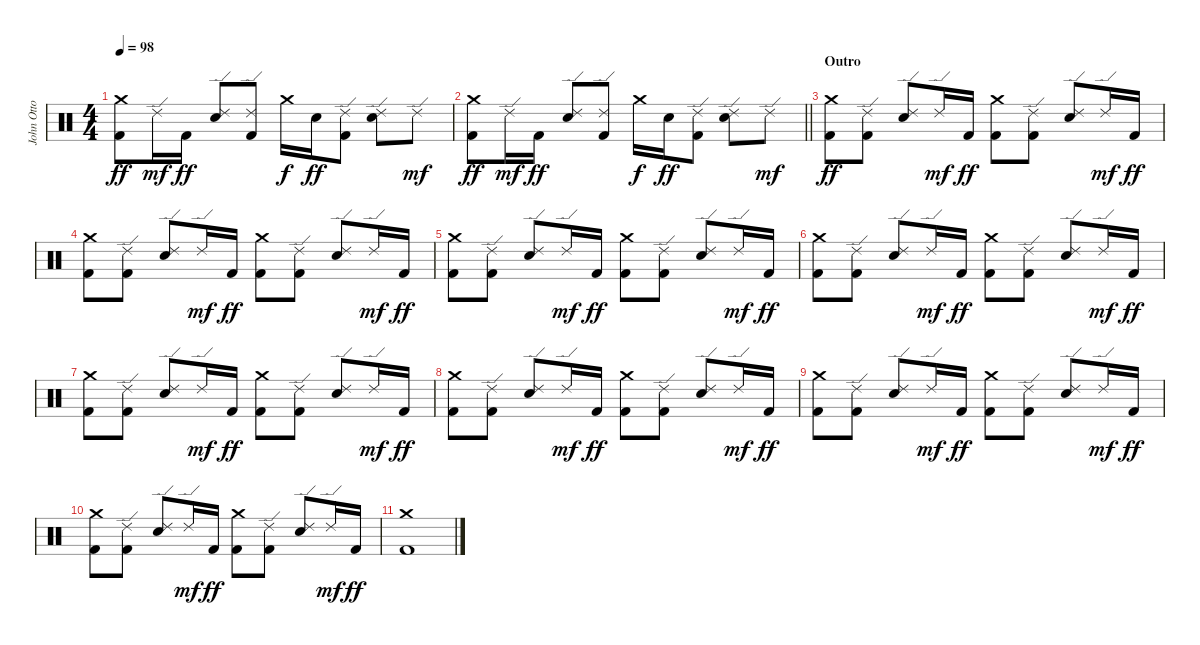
\track ("John Otto (Drums)" "John Otto ") {instrument percussion}
\staff {score}
\articulation defaults
\ts (4 4)
\tempo 98
\clef neutral
\ks c
("Crash medium (hit)" "Kick (hit) 2").8{dy ff} "Ride (edge) 2".16{dy mf} "Kick (hit) 2".16{dy ff} ("Ride (edge) 2" "Snare (hit) 2").8 ("Ride (edge) 2" "Kick (hit) 2").8 "Crash medium (hit)".16{dy f} "Snare (hit) 2".16{dy ff} ("Ride (edge) 2" "Kick (hit) 2").8 ("Ride (edge) 2" "Snare (hit) 2").8 "Ride (edge) 2".8{dy mf} |
\barLineRight lightlight
("Crash medium (hit)" "Kick (hit) 2").8{dy ff} "Ride (edge) 2".16{dy mf} "Kick (hit) 2".16{dy ff} ("Ride (edge) 2" "Snare (hit) 2").8 ("Ride (edge) 2" "Kick (hit) 2").8 "Crash medium (hit)".16{dy f} "Snare (hit) 2".16{dy ff} ("Ride (edge) 2" "Kick (hit) 2").8 ("Ride (edge) 2" "Snare (hit) 2").8 "Ride (edge) 2".8{dy mf} |
\section ("" "Outro")
("Crash medium (hit)" "Kick (hit) 2").8{dy ff} ("Ride (edge) 2" "Kick (hit) 2").8 ("Ride (edge) 2" "Snare (hit) 2").8 "Ride (edge) 2".16{dy mf} "Kick (hit) 2".16{dy ff} ("Crash medium (hit)" "Kick (hit) 2").8 ("Ride (edge) 2" "Kick (hit) 2").8 ("Ride (edge) 2" "Snare (hit) 2").8 "Ride (edge) 2".16{dy mf} "Kick (hit) 2".16{dy ff} |
("Crash medium (hit)" "Kick (hit) 2").8 ("Ride (edge) 2" "Kick (hit) 2").8 ("Ride (edge) 2" "Snare (hit) 2").8 "Ride (edge) 2".16{dy mf} "Kick (hit) 2".16{dy ff} ("Crash medium (hit)" "Kick (hit) 2").8 ("Ride (edge) 2" "Kick (hit) 2").8 ("Ride (edge) 2" "Snare (hit) 2").8 "Ride (edge) 2".16{dy mf} "Kick (hit) 2".16{dy ff} |
("Crash medium (hit)" "Kick (hit) 2").8 ("Ride (edge) 2" "Kick (hit) 2").8 ("Ride (edge) 2" "Snare (hit) 2").8 "Ride (edge) 2".16{dy mf} "Kick (hit) 2".16{dy ff} ("Crash medium (hit)" "Kick (hit) 2").8 ("Ride (edge) 2" "Kick (hit) 2").8 ("Ride (edge) 2" "Snare (hit) 2").8 "Ride (edge) 2".16{dy mf} "Kick (hit) 2".16{dy ff} |
("Crash medium (hit)" "Kick (hit) 2").8 ("Ride (edge) 2" "Kick (hit) 2").8 ("Ride (edge) 2" "Snare (hit) 2").8 "Ride (edge) 2".16{dy mf} "Kick (hit) 2".16{dy ff} ("Crash medium (hit)" "Kick (hit) 2").8 ("Ride (edge) 2" "Kick (hit) 2").8 ("Ride (edge) 2" "Snare (hit) 2").8 "Ride (edge) 2".16{dy mf} "Kick (hit) 2".16{dy ff} |
("Crash medium (hit)" "Kick (hit) 2").8 ("Ride (edge) 2" "Kick (hit) 2").8 ("Ride (edge) 2" "Snare (hit) 2").8 "Ride (edge) 2".16{dy mf} "Kick (hit) 2".16{dy ff} ("Crash medium (hit)" "Kick (hit) 2").8 ("Ride (edge) 2" "Kick (hit) 2").8 ("Ride (edge) 2" "Snare (hit) 2").8 "Ride (edge) 2".16{dy mf} "Kick (hit) 2".16{dy ff} |
("Crash medium (hit)" "Kick (hit) 2").8 ("Ride (edge) 2" "Kick (hit) 2").8 ("Ride (edge) 2" "Snare (hit) 2").8 "Ride (edge) 2".16{dy mf} "Kick (hit) 2".16{dy ff} ("Crash medium (hit)" "Kick (hit) 2").8 ("Ride (edge) 2" "Kick (hit) 2").8 ("Ride (edge) 2" "Snare (hit) 2").8 "Ride (edge) 2".16{dy mf} "Kick (hit) 2".16{dy ff} |
("Crash medium (hit)" "Kick (hit) 2").8 ("Ride (edge) 2" "Kick (hit) 2").8 ("Ride (edge) 2" "Snare (hit) 2").8 "Ride (edge) 2".16{dy mf} "Kick (hit) 2".16{dy ff} ("Crash medium (hit)" "Kick (hit) 2").8 ("Ride (edge) 2" "Kick (hit) 2").8 ("Ride (edge) 2" "Snare (hit) 2").8 "Ride (edge) 2".16{dy mf} "Kick (hit) 2".16{dy ff} |
("Crash medium (hit)" "Kick (hit) 2").8 ("Ride (edge) 2" "Kick (hit) 2").8 ("Ride (edge) 2" "Snare (hit) 2").8 "Ride (edge) 2".16{dy mf} "Kick (hit) 2".16{dy ff} ("Crash medium (hit)" "Kick (hit) 2").8 ("Ride (edge) 2" "Kick (hit) 2").8 ("Ride (edge) 2" "Snare (hit) 2").8 "Ride (edge) 2".16{dy mf} "Kick (hit) 2".16{dy ff} |
("Crash medium (hit)" "Kick (hit) 2").1
